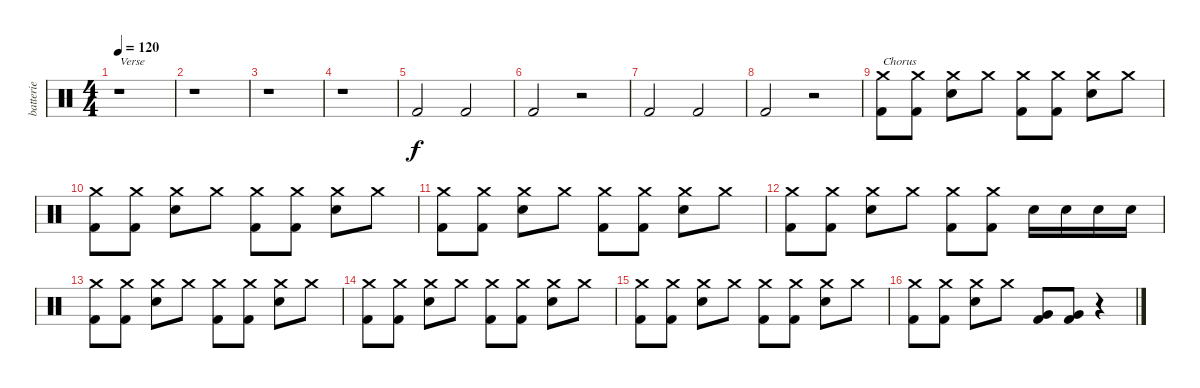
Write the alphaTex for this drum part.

\track ("batterie" "batterie") {instrument percussion}
\staff {score}
\articulation defaults
\ts (4 4)
\tempo 120
\clef neutral
\ks c
r.1{txt "Verse" dy f} |
r.1 |
r.1 |
r.1 |
"Kick (hit) 2".2 "Kick (hit) 2".2 |
"Kick (hit) 2".2 r.2 |
"Kick (hit) 2".2 "Kick (hit) 2".2 |
"Kick (hit) 2".2 r.2 |
("Crash medium (hit)" "Kick (hit) 2").8{txt "Chorus"} ("Crash medium (hit)" "Kick (hit) 2").8 ("Crash medium (hit)" "Electric Snare (hit)").8 "Crash medium (hit)".8 ("Crash medium (hit)" "Kick (hit) 2").8 ("Crash medium (hit)" "Kick (hit) 2").8 ("Crash medium (hit)" "Electric Snare (hit)").8 "Crash medium (hit)".8 |
("Crash medium (hit)" "Kick (hit) 2").8 ("Crash medium (hit)" "Kick (hit) 2").8 ("Crash medium (hit)" "Electric Snare (hit)").8 "Crash medium (hit)".8 ("Crash medium (hit)" "Kick (hit) 2").8 ("Crash medium (hit)" "Kick (hit) 2").8 ("Crash medium (hit)" "Electric Snare (hit)").8 "Crash medium (hit)".8 |
("Crash medium (hit)" "Kick (hit) 2").8 ("Crash medium (hit)" "Kick (hit) 2").8 ("Crash medium (hit)" "Electric Snare (hit)").8 "Crash medium (hit)".8 ("Crash medium (hit)" "Kick (hit) 2").8 ("Crash medium (hit)" "Kick (hit) 2").8 ("Crash medium (hit)" "Electric Snare (hit)").8 "Crash medium (hit)".8 |
("Crash medium (hit)" "Kick (hit) 2").8 ("Crash medium (hit)" "Kick (hit) 2").8 ("Crash medium (hit)" "Electric Snare (hit)").8 "Crash medium (hit)".8 ("Crash medium (hit)" "Kick (hit) 2").8 ("Crash medium (hit)" "Kick (hit) 2").8 "Electric Snare (hit)".16 "Electric Snare (hit)".16 "Electric Snare (hit)".16 "Electric Snare (hit)".16 |
("Crash medium (hit)" "Kick (hit) 2").8 ("Crash medium (hit)" "Kick (hit) 2").8 ("Crash medium (hit)" "Electric Snare (hit)").8 "Crash medium (hit)".8 ("Crash medium (hit)" "Kick (hit) 2").8 ("Crash medium (hit)" "Kick (hit) 2").8 ("Crash medium (hit)" "Electric Snare (hit)").8 "Crash medium (hit)".8 |
("Crash medium (hit)" "Kick (hit) 2").8 ("Crash medium (hit)" "Kick (hit) 2").8 ("Crash medium (hit)" "Electric Snare (hit)").8 "Crash medium (hit)".8 ("Crash medium (hit)" "Kick (hit) 2").8 ("Crash medium (hit)" "Kick (hit) 2").8 ("Crash medium (hit)" "Electric Snare (hit)").8 "Crash medium (hit)".8 |
("Crash medium (hit)" "Kick (hit) 2").8 ("Crash medium (hit)" "Kick (hit) 2").8 ("Crash medium (hit)" "Electric Snare (hit)").8 "Crash medium (hit)".8 ("Crash medium (hit)" "Kick (hit) 2").8 ("Crash medium (hit)" "Kick (hit) 2").8 ("Crash medium (hit)" "Electric Snare (hit)").8 "Crash medium (hit)".8 |
("Crash medium (hit)" "Kick (hit) 2").8 ("Crash medium (hit)" "Kick (hit) 2").8 ("Crash medium (hit)" "Electric Snare (hit)").8 "Crash medium (hit)".8 ("Very Low Tom (hit)" "Kick (hit) 2").8 ("Very Low Tom (hit)" "Kick (hit) 2").8 r.4
